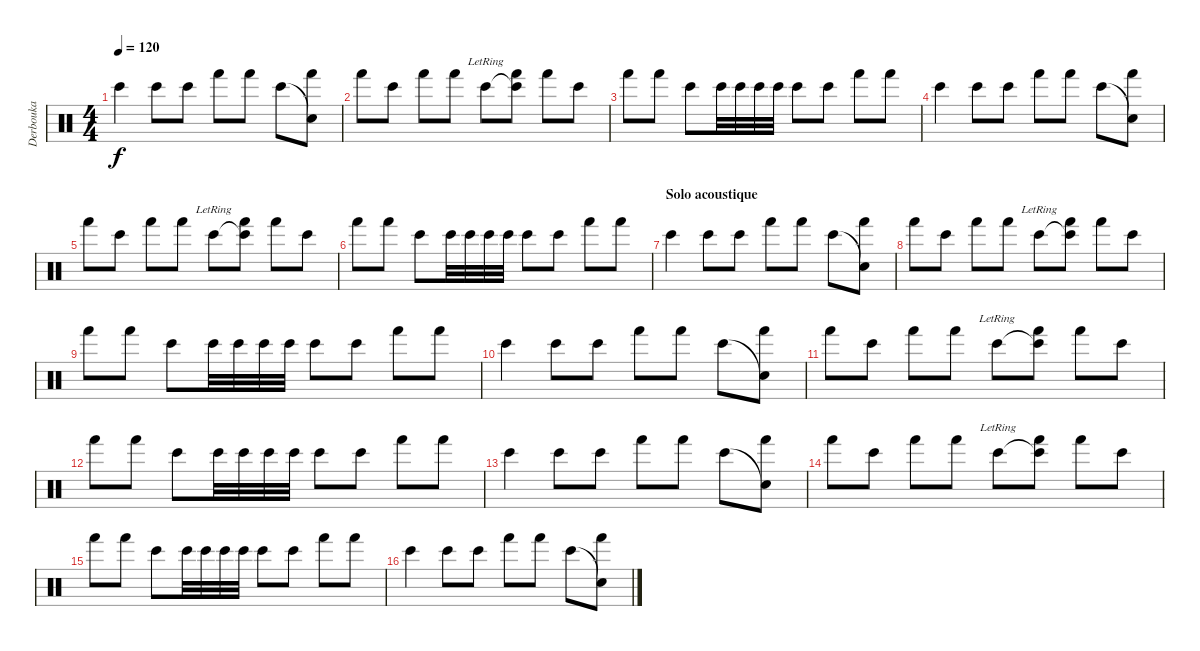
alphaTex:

\track ("Derbouka" "Derbouka") {instrument percussion}
\staff {score}
\articulation defaults
\ts (4 4)
\tempo 120
\clef neutral
\ks c "Bongo High (hit)".4{dy f} "Bongo High (hit)".8 "Bongo High (hit)".8 "Hand (hit)".8 "Hand (hit)".8 "Bongo High (hit)".8
("Snare (hit)"{t} "Hand (hit)").8 |
"Hand (hit)".8 "Bongo High (hit)".8 "Hand (hit)".8 "Hand (hit)".8 "Bongo High (hit)"{lr}.8 ("Bongo High (hit)"{t} "Hand (hit)").8 "Hand (hit)".8 "Bongo High (hit)".8 |
"Hand (hit)".8 "Hand (hit)".8 "Bongo High (hit)".8 "Bongo High (hit)".32 "Bongo High (hit)".32 "Bongo High (hit)".32 "Bongo High (hit)".32 "Bongo High (hit)".8 "Bongo High (hit)".8 "Hand (hit)".8 "Hand (hit)".8 |
"Bongo High (hit)".4 "Bongo High (hit)".8 "Bongo High (hit)".8 "Hand (hit)".8 "Hand (hit)".8 "Bongo High (hit)".8 ("Snare (hit)"{t} "Hand (hit)").8 |
"Hand (hit)".8 "Bongo High (hit)".8 "Hand (hit)".8 "Hand (hit)".8 "Bongo High (hit)"{lr}.8 ("Bongo High (hit)"{t} "Hand (hit)").8 "Hand (hit)".8 "Bongo High (hit)".8 |
"Hand (hit)".8 "Hand (hit)".8 "Bongo High (hit)".8 "Bongo High (hit)".32 "Bongo High (hit)".32 "Bongo High (hit)".32 "Bongo High (hit)".32 "Bongo High (hit)".8 "Bongo High (hit)".8 "Hand (hit)".8 "Hand (hit)".8 |
\section ("" "Solo acoustique")
"Bongo High (hit)".4 "Bongo High (hit)".8 "Bongo High (hit)".8 "Hand (hit)".8 "Hand (hit)".8 "Bongo High (hit)".8 ("Snare (hit)"{t} "Hand (hit)").8 |
"Hand (hit)".8 "Bongo High (hit)".8 "Hand (hit)".8 "Hand (hit)".8 "Bongo High (hit)"{lr}.8 ("Bongo High (hit)"{t} "Hand (hit)").8 "Hand (hit)".8 "Bongo High (hit)".8 |
"Hand (hit)".8 "Hand (hit)".8 "Bongo High (hit)".8 "Bongo High (hit)".32 "Bongo High (hit)".32 "Bongo High (hit)".32 "Bongo High (hit)".32 "Bongo High (hit)".8 "Bongo High (hit)".8 "Hand (hit)".8 "Hand (hit)".8 |
"Bongo High (hit)".4 "Bongo High (hit)".8 "Bongo High (hit)".8 "Hand (hit)".8 "Hand (hit)".8 "Bongo High (hit)".8 ("Snare (hit)"{t} "Hand (hit)").8 |
"Hand (hit)".8 "Bongo High (hit)".8 "Hand (hit)".8 "Hand (hit)".8 "Bongo High (hit)"{lr}.8 ("Bongo High (hit)"{t} "Hand (hit)").8 "Hand (hit)".8 "Bongo High (hit)".8 |
"Hand (hit)".8 "Hand (hit)".8 "Bongo High (hit)".8 "Bongo High (hit)".32 "Bongo High (hit)".32 "Bongo High (hit)".32 "Bongo High (hit)".32 "Bongo High (hit)".8 "Bongo High (hit)".8 "Hand (hit)".8 "Hand (hit)".8 |
"Bongo High (hit)".4 "Bongo High (hit)".8 "Bongo High (hit)".8 "Hand (hit)".8 "Hand (hit)".8 "Bongo High (hit)".8 ("Snare (hit)"{t} "Hand (hit)").8 |
"Hand (hit)".8 "Bongo High (hit)".8 "Hand (hit)".8 "Hand (hit)".8 "Bongo High (hit)"{lr}.8 ("Bongo High (hit)"{t} "Hand (hit)").8 "Hand (hit)".8 "Bongo High (hit)".8 |
"Hand (hit)".8 "Hand (hit)".8 "Bongo High (hit)".8 "Bongo High (hit)".32 "Bongo High (hit)".32 "Bongo High (hit)".32 "Bongo High (hit)".32 "Bongo High (hit)".8 "Bongo High (hit)".8 "Hand (hit)".8 "Hand (hit)".8 |
"Bongo High (hit)".4 "Bongo High (hit)".8 "Bongo High (hit)".8 "Hand (hit)".8 "Hand (hit)".8 "Bongo High (hit)".8 ("Snare (hit)"{t} "Hand (hit)").8
